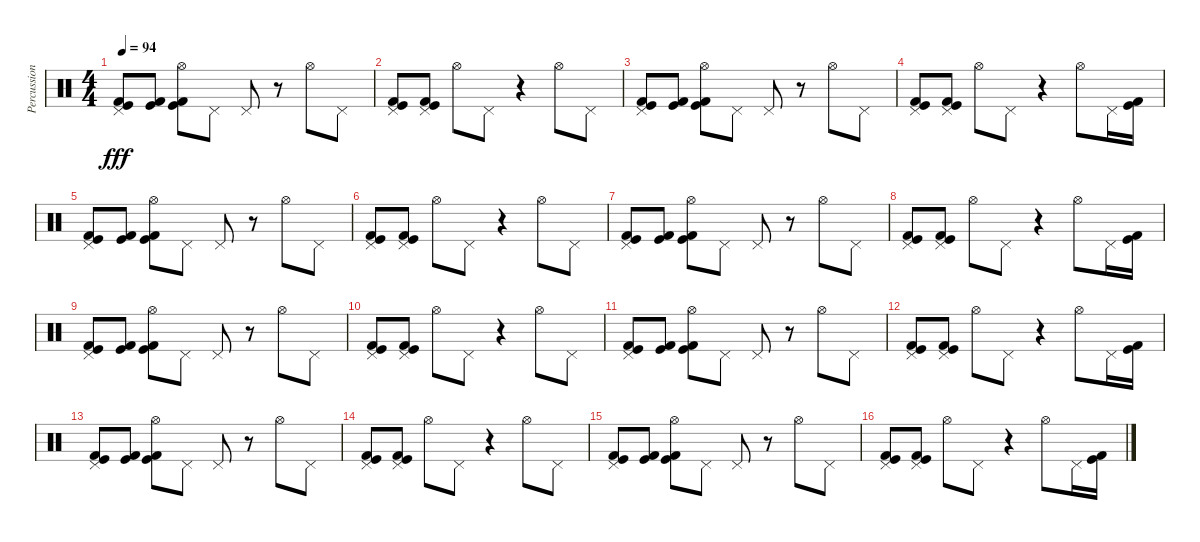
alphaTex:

\track ("Percussion" "Percussion") {instrument percussion}
\staff {score}
\articulation defaults
\ts (4 4)
\tempo 94
\clef neutral
\ks c
("Pedal Hi-Hat (hit)" "Kick (hit) 2" "Kick (hit)").8{dy fff} ("Kick (hit) 2" "Kick (hit)").8 ("Hi-Hat (open)" "Kick (hit) 2" "Kick (hit)").8 "Pedal Hi-Hat (hit)".8 "Pedal Hi-Hat (hit)".8 r.8 "Hi-Hat (open)".8 "Pedal Hi-Hat (hit)".8 |
("Kick (hit)" "Kick (hit) 2" "Pedal Hi-Hat (hit)").8 ("Kick (hit) 2" "Kick (hit)" "Pedal Hi-Hat (hit)").8 "Hi-Hat (open)".8 "Pedal Hi-Hat (hit)".8 r.4 "Hi-Hat (open)".8 "Pedal Hi-Hat (hit)".8 |
("Kick (hit)" "Kick (hit) 2" "Pedal Hi-Hat (hit)").8 ("Kick (hit) 2" "Kick (hit)").8 ("Hi-Hat (open)" "Kick (hit) 2" "Kick (hit)").8 "Pedal Hi-Hat (hit)".8 "Pedal Hi-Hat (hit)".8 r.8 "Hi-Hat (open)".8 "Pedal Hi-Hat (hit)".8 |
("Kick (hit)" "Kick (hit) 2" "Pedal Hi-Hat (hit)").8 ("Kick (hit) 2" "Kick (hit)" "Pedal Hi-Hat (hit)").8 "Hi-Hat (open)".8 "Pedal Hi-Hat (hit)".8 r.4 "Hi-Hat (open)".8 "Pedal Hi-Hat (hit)".16 ("Kick (hit) 2" "Kick (hit)").16 |
("Pedal Hi-Hat (hit)" "Kick (hit) 2" "Kick (hit)").8 ("Kick (hit) 2" "Kick (hit)").8 ("Hi-Hat (open)" "Kick (hit) 2" "Kick (hit)").8 "Pedal Hi-Hat (hit)".8 "Pedal Hi-Hat (hit)".8 r.8 "Hi-Hat (open)".8 "Pedal Hi-Hat (hit)".8 |
("Kick (hit)" "Kick (hit) 2" "Pedal Hi-Hat (hit)").8 ("Kick (hit) 2" "Kick (hit)" "Pedal Hi-Hat (hit)").8 "Hi-Hat (open)".8 "Pedal Hi-Hat (hit)".8 r.4 "Hi-Hat (open)".8 "Pedal Hi-Hat (hit)".8 |
("Kick (hit)" "Kick (hit) 2" "Pedal Hi-Hat (hit)").8 ("Kick (hit) 2" "Kick (hit)").8 ("Hi-Hat (open)" "Kick (hit) 2" "Kick (hit)").8 "Pedal Hi-Hat (hit)".8 "Pedal Hi-Hat (hit)".8 r.8 "Hi-Hat (open)".8 "Pedal Hi-Hat (hit)".8 |
("Kick (hit)" "Kick (hit) 2" "Pedal Hi-Hat (hit)").8 ("Kick (hit) 2" "Kick (hit)" "Pedal Hi-Hat (hit)").8 "Hi-Hat (open)".8 "Pedal Hi-Hat (hit)".8 r.4 "Hi-Hat (open)".8 "Pedal Hi-Hat (hit)".16 ("Kick (hit) 2" "Kick (hit)").16 |
("Pedal Hi-Hat (hit)" "Kick (hit) 2" "Kick (hit)").8 ("Kick (hit) 2" "Kick (hit)").8 ("Hi-Hat (open)" "Kick (hit) 2" "Kick (hit)").8 "Pedal Hi-Hat (hit)".8 "Pedal Hi-Hat (hit)".8 r.8 "Hi-Hat (open)".8 "Pedal Hi-Hat (hit)".8 |
("Kick (hit)" "Kick (hit) 2" "Pedal Hi-Hat (hit)").8 ("Kick (hit) 2" "Kick (hit)" "Pedal Hi-Hat (hit)").8 "Hi-Hat (open)".8 "Pedal Hi-Hat (hit)".8 r.4 "Hi-Hat (open)".8 "Pedal Hi-Hat (hit)".8 |
("Kick (hit)" "Kick (hit) 2" "Pedal Hi-Hat (hit)").8 ("Kick (hit) 2" "Kick (hit)").8 ("Hi-Hat (open)" "Kick (hit) 2" "Kick (hit)").8 "Pedal Hi-Hat (hit)".8 "Pedal Hi-Hat (hit)".8 r.8 "Hi-Hat (open)".8 "Pedal Hi-Hat (hit)".8 |
("Kick (hit)" "Kick (hit) 2" "Pedal Hi-Hat (hit)").8 ("Kick (hit) 2" "Kick (hit)" "Pedal Hi-Hat (hit)").8 "Hi-Hat (open)".8 "Pedal Hi-Hat (hit)".8 r.4 "Hi-Hat (open)".8 "Pedal Hi-Hat (hit)".16 ("Kick (hit) 2" "Kick (hit)").16 |
("Pedal Hi-Hat (hit)" "Kick (hit) 2" "Kick (hit)").8 ("Kick (hit) 2" "Kick (hit)").8 ("Hi-Hat (open)" "Kick (hit) 2" "Kick (hit)").8 "Pedal Hi-Hat (hit)".8 "Pedal Hi-Hat (hit)".8 r.8 "Hi-Hat (open)".8 "Pedal Hi-Hat (hit)".8 |
("Kick (hit)" "Kick (hit) 2" "Pedal Hi-Hat (hit)").8 ("Kick (hit) 2" "Kick (hit)" "Pedal Hi-Hat (hit)").8 "Hi-Hat (open)".8 "Pedal Hi-Hat (hit)".8 r.4 "Hi-Hat (open)".8 "Pedal Hi-Hat (hit)".8 |
("Kick (hit)" "Kick (hit) 2" "Pedal Hi-Hat (hit)").8 ("Kick (hit) 2" "Kick (hit)").8 ("Hi-Hat (open)" "Kick (hit) 2" "Kick (hit)").8 "Pedal Hi-Hat (hit)".8 "Pedal Hi-Hat (hit)".8 r.8 "Hi-Hat (open)".8 "Pedal Hi-Hat (hit)".8 |
("Kick (hit)" "Kick (hit) 2" "Pedal Hi-Hat (hit)").8 ("Kick (hit) 2" "Kick (hit)" "Pedal Hi-Hat (hit)").8 "Hi-Hat (open)".8 "Pedal Hi-Hat (hit)".8 r.4 "Hi-Hat (open)".8 "Pedal Hi-Hat (hit)".16 ("Kick (hit) 2" "Kick (hit)").16
